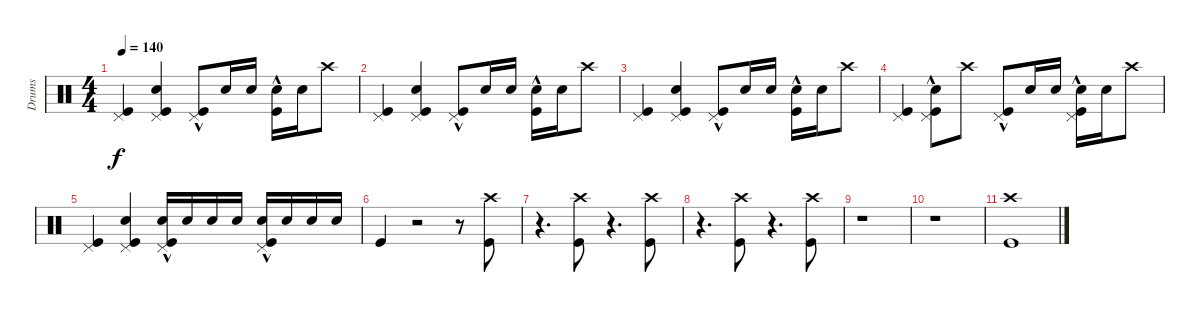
\track ("Drums" "Drums") {instrument percussion}
\staff {score}
\articulation defaults
\ts (4 4)
\tempo 140
\clef neutral
\ks c
("Kick (hit)" "Pedal Hi-Hat (hit)").4{dy f} ("Kick (hit)" "Snare (hit) 2" "Pedal Hi-Hat (hit)").4 ("Kick (hit)"{hac} "Pedal Hi-Hat (hit)").8 "Snare (hit) 2".16 "Snare (hit) 2".16 ("Kick (hit)"{hac} "Snare (hit) 2").16 "Snare (hit) 2".16 "Crash high (hit)".8 |
("Kick (hit)" "Pedal Hi-Hat (hit)").4 ("Kick (hit)" "Snare (hit) 2" "Pedal Hi-Hat (hit)").4 ("Kick (hit)"{hac} "Pedal Hi-Hat (hit)").8 "Snare (hit) 2".16 "Snare (hit) 2".16 ("Kick (hit)"{hac} "Snare (hit) 2").16 "Snare (hit) 2".16 "Crash high (hit)".8 |
("Kick (hit)" "Pedal Hi-Hat (hit)").4 ("Kick (hit)" "Snare (hit) 2" "Pedal Hi-Hat (hit)").4 ("Kick (hit)"{hac} "Pedal Hi-Hat (hit)").8 "Snare (hit) 2".16 "Snare (hit) 2".16 ("Kick (hit)"{hac} "Snare (hit) 2").16 "Snare (hit) 2".16 "Crash high (hit)".8 |
("Kick (hit)" "Pedal Hi-Hat (hit)").4 ("Kick (hit)"{hac} "Snare (hit) 2" "Pedal Hi-Hat (hit)").8 "Crash high (hit)".8 ("Kick (hit)"{hac} "Pedal Hi-Hat (hit)").8 "Snare (hit) 2".16 "Snare (hit) 2".16 ("Kick (hit)"{hac} "Snare (hit) 2" "Pedal Hi-Hat (hit)").16 "Snare (hit) 2".16 "Crash high (hit)".8 |
("Kick (hit)" "Pedal Hi-Hat (hit)").4 ("Kick (hit)" "Pedal Hi-Hat (hit)" "Snare (hit) 2").4 ("Kick (hit)"{hac} "Snare (hit) 2" "Pedal Hi-Hat (hit)").16 "Snare (hit) 2".16 "Snare (hit) 2".16 "Snare (hit) 2".16 ("Kick (hit)"{hac} "Snare (hit) 2" "Pedal Hi-Hat (hit)").16 "Snare (hit) 2".16 "Snare (hit) 2".16 "Snare (hit) 2".16 |
"Kick (hit)".4 r.2 r.8 ("Kick (hit)" "Crash high (hit)").8 |
r.4{d} ("Kick (hit)" "Crash high (hit)").8 r.4{d} ("Kick (hit)" "Crash high (hit)").8 |
r.4{d} ("Kick (hit)" "Crash high (hit)").8 r.4{d} ("Kick (hit)" "Crash high (hit)").8 |
r.1 |
r.1 |
("Kick (hit)" "Crash high (hit)").1
